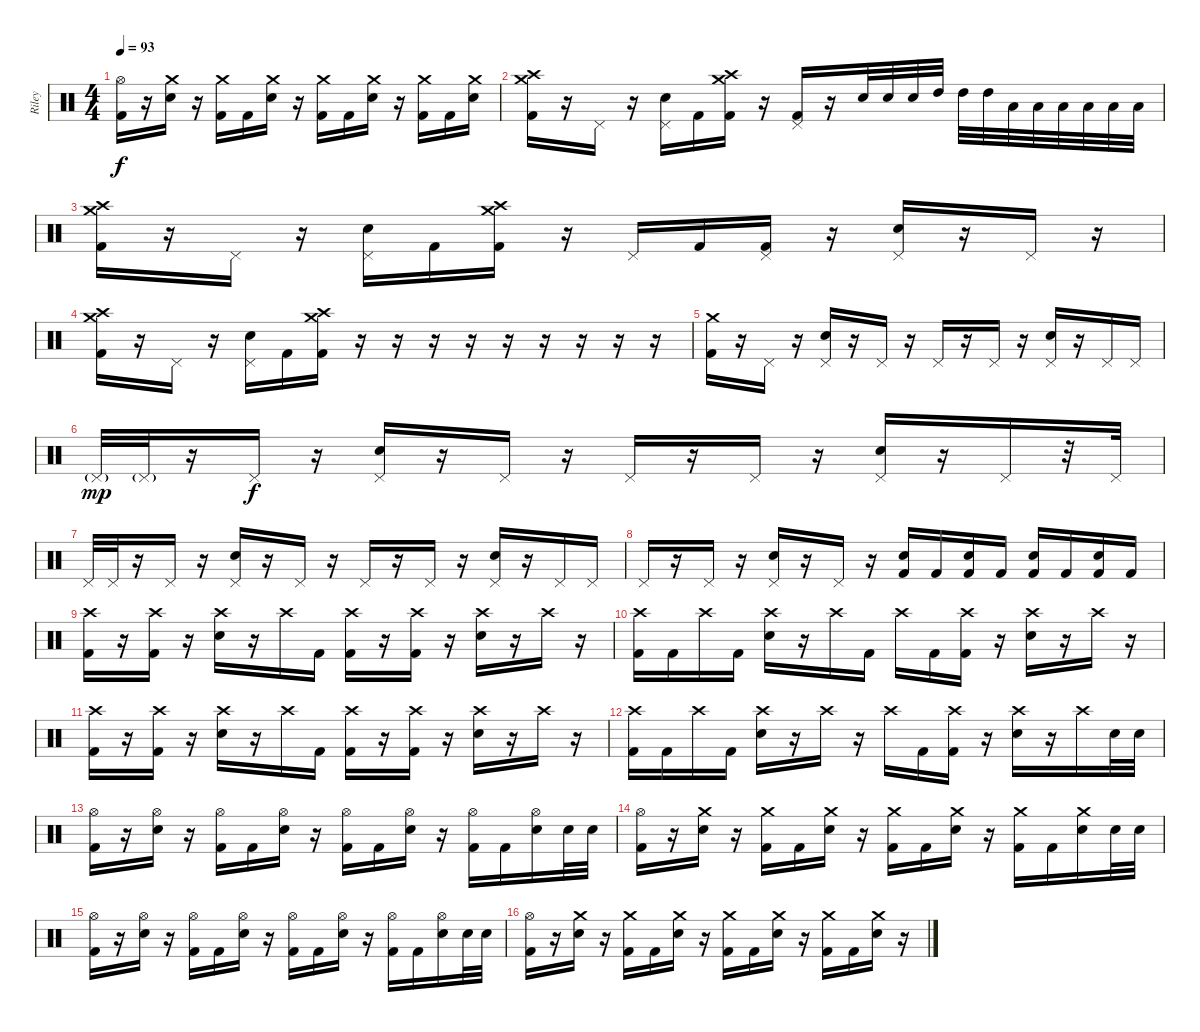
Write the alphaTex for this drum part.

\track ("Riley" "Riley") {instrument percussion}
\staff {score}
\articulation defaults
\ts (4 4)
\tempo 93
\clef neutral
\ks c
("Hi-Hat (open)" "Kick (hit) 2").16{dy f} r.16 ("Crash medium (hit)" "Electric Snare (hit)").16 r.16 ("Crash medium (hit)" "Kick (hit) 2").16 "Kick (hit) 2".16 ("Crash medium (hit)" "Electric Snare (hit)").16 r.16 ("Crash medium (hit)" "Kick (hit) 2").16 "Kick (hit) 2".16 ("Crash medium (hit)" "Electric Snare (hit)").16 r.16 ("Crash medium (hit)" "Kick (hit) 2").16 "Kick (hit) 2".16 ("Crash medium (hit)" "Electric Snare (hit)").16 |
("Crash high (hit)" "Crash medium (hit)" "Kick (hit) 2").16 r.16 "Pedal Hi-Hat (hit)".16 r.16 ("Pedal Hi-Hat (hit)" "Electric Snare (hit)").16 "Kick (hit) 2".16 ("Crash high (hit)" "Crash medium (hit)" "Kick (hit) 2").16 r.16 ("Pedal Hi-Hat (hit)" "Kick (hit) 2").16 r.16 "Electric Snare (hit)".32 "Electric Snare (hit)".32 "Electric Snare (hit)".32 "High Tom (hit)".32 "High Tom (hit)".32 "High Tom (hit)".32 "Low Tom (hit)".32 "Low Tom (hit)".32 "Low Tom (hit)".32 "Low Tom (hit)".32 "Low Tom (hit)".32 "Low Tom (hit)".32 |
("Crash high (hit)" "Crash medium (hit)" "Kick (hit) 2").16 r.16 "Pedal Hi-Hat (hit)".16 r.16 ("Pedal Hi-Hat (hit)" "Electric Snare (hit)").16 "Kick (hit) 2".16 ("Crash high (hit)" "Crash medium (hit)" "Kick (hit) 2").16 r.16 "Pedal Hi-Hat (hit)".16 "Kick (hit) 2".16 ("Pedal Hi-Hat (hit)" "Kick (hit) 2").16 r.16 ("Pedal Hi-Hat (hit)" "Electric Snare (hit)").16 r.16 "Pedal Hi-Hat (hit)".16 r.16 |
("Crash high (hit)" "Crash medium (hit)" "Kick (hit) 2").16 r.16 "Pedal Hi-Hat (hit)".16 r.16 ("Pedal Hi-Hat (hit)" "Electric Snare (hit)").16 "Kick (hit) 2".16 ("Crash high (hit)" "Crash medium (hit)" "Kick (hit) 2").16 r.16 r.16 r.16 r.16 r.16 r.16 r.16 r.16 r.16 |
("Crash medium (hit)" "Kick (hit) 2").16 r.16 "Pedal Hi-Hat (hit)".16 r.16 ("Pedal Hi-Hat (hit)" "Electric Snare (hit)").16 r.16 "Pedal Hi-Hat (hit)".16 r.16 "Pedal Hi-Hat (hit)".16 r.16 "Pedal Hi-Hat (hit)".16 r.16 ("Pedal Hi-Hat (hit)" "Electric Snare (hit)").16 r.16 "Pedal Hi-Hat (hit)".16 "Pedal Hi-Hat (hit)".16 |
"Pedal Hi-Hat (hit)"{g}.32{dy mp} "Pedal Hi-Hat (hit)"{g}.32 r.16 "Pedal Hi-Hat (hit)".16{dy f} r.16 ("Pedal Hi-Hat (hit)" "Electric Snare (hit)").16 r.16 "Pedal Hi-Hat (hit)".16 r.16 "Pedal Hi-Hat (hit)".16 r.16 "Pedal Hi-Hat (hit)".16 r.16 ("Pedal Hi-Hat (hit)" "Electric Snare (hit)").16 r.16 "Pedal Hi-Hat (hit)".16 r.32 "Pedal Hi-Hat (hit)".32 |
"Pedal Hi-Hat (hit)".32 "Pedal Hi-Hat (hit)".32 r.16 "Pedal Hi-Hat (hit)".16 r.16 ("Pedal Hi-Hat (hit)" "Electric Snare (hit)").16 r.16 "Pedal Hi-Hat (hit)".16 r.16 "Pedal Hi-Hat (hit)".16 r.16 "Pedal Hi-Hat (hit)".16 r.16 ("Pedal Hi-Hat (hit)" "Electric Snare (hit)").16 r.16 "Pedal Hi-Hat (hit)".16 "Pedal Hi-Hat (hit)".16 |
"Pedal Hi-Hat (hit)".16 r.16 "Pedal Hi-Hat (hit)".16 r.16 ("Pedal Hi-Hat (hit)" "Electric Snare (hit)").16 r.16 "Pedal Hi-Hat (hit)".16 r.16 ("Electric Snare (hit)" "Kick (hit) 2").16 "Kick (hit) 2".16 ("Electric Snare (hit)" "Kick (hit) 2").16 "Kick (hit) 2".16 ("Electric Snare (hit)" "Kick (hit) 2").16 "Kick (hit) 2".16 ("Electric Snare (hit)" "Kick (hit) 2").16 "Kick (hit) 2".16 |
("Crash high (hit)" "Kick (hit) 2").16 r.16 ("Crash high (hit)" "Kick (hit) 2").16 r.16 ("Crash high (hit)" "Electric Snare (hit)").16 r.16 "Crash high (hit)".16 "Kick (hit) 2".16 ("Crash high (hit)" "Kick (hit) 2").16 r.16 ("Crash high (hit)" "Kick (hit) 2").16 r.16 ("Crash high (hit)" "Electric Snare (hit)").16 r.16 "Crash high (hit)".16 r.16 |
("Crash high (hit)" "Kick (hit) 2").16 "Kick (hit) 2".16 "Crash high (hit)".16 "Kick (hit) 2".16 ("Crash high (hit)" "Electric Snare (hit)").16 r.16 "Crash high (hit)".16 "Kick (hit) 2".16 "Crash high (hit)".16 "Kick (hit) 2".16 ("Crash high (hit)" "Kick (hit) 2").16 r.16 ("Crash high (hit)" "Electric Snare (hit)").16 r.16 "Crash high (hit)".16 r.16 |
("Crash high (hit)" "Kick (hit) 2").16 r.16 ("Crash high (hit)" "Kick (hit) 2").16 r.16 ("Crash high (hit)" "Electric Snare (hit)").16 r.16 "Crash high (hit)".16 "Kick (hit) 2".16 ("Crash high (hit)" "Kick (hit) 2").16 r.16 ("Crash high (hit)" "Kick (hit) 2").16 r.16 ("Crash high (hit)" "Electric Snare (hit)").16 r.16 "Crash high (hit)".16 r.16 |
("Crash high (hit)" "Kick (hit) 2").16 "Kick (hit) 2".16 "Crash high (hit)".16 "Kick (hit) 2".16 ("Crash high (hit)" "Electric Snare (hit)").16 r.16 "Crash high (hit)".16 r.16 "Crash high (hit)".16 "Kick (hit) 2".16 ("Crash high (hit)" "Kick (hit) 2").16 r.16 ("Crash high (hit)" "Electric Snare (hit)").16 r.16 "Crash high (hit)".16 "Electric Snare (hit)".32 "Electric Snare (hit)".32 |
("Hi-Hat (open)" "Kick (hit) 2").16 r.16 ("Hi-Hat (open)" "Electric Snare (hit)").16 r.16 ("Hi-Hat (open)" "Kick (hit) 2").16 "Kick (hit) 2".16 ("Hi-Hat (open)" "Electric Snare (hit)").16 r.16 ("Hi-Hat (open)" "Kick (hit) 2").16 "Kick (hit) 2".16 ("Hi-Hat (open)" "Electric Snare (hit)").16 r.16 ("Hi-Hat (open)" "Kick (hit) 2").16 "Kick (hit) 2".16 ("Hi-Hat (open)" "Electric Snare (hit)").16 "Electric Snare (hit)".32 "Electric Snare (hit)".32 |
("Hi-Hat (open)" "Kick (hit) 2").16 r.16 ("Crash medium (hit)" "Electric Snare (hit)").16 r.16 ("Crash medium (hit)" "Kick (hit) 2").16 "Kick (hit) 2".16 ("Crash medium (hit)" "Electric Snare (hit)").16 r.16 ("Crash medium (hit)" "Kick (hit) 2").16 "Kick (hit) 2".16 ("Crash medium (hit)" "Electric Snare (hit)").16 r.16 ("Crash medium (hit)" "Kick (hit) 2").16 "Kick (hit) 2".16 ("Crash medium (hit)" "Electric Snare (hit)").16 "Electric Snare (hit)".32 "Electric Snare (hit)".32 |
("Hi-Hat (open)" "Kick (hit) 2").16 r.16 ("Hi-Hat (open)" "Electric Snare (hit)").16 r.16 ("Hi-Hat (open)" "Kick (hit) 2").16 "Kick (hit) 2".16 ("Hi-Hat (open)" "Electric Snare (hit)").16 r.16 ("Hi-Hat (open)" "Kick (hit) 2").16 "Kick (hit) 2".16 ("Hi-Hat (open)" "Electric Snare (hit)").16 r.16 ("Hi-Hat (open)" "Kick (hit) 2").16 "Kick (hit) 2".16 ("Hi-Hat (open)" "Electric Snare (hit)").16 "Electric Snare (hit)".32 "Electric Snare (hit)".32 |
("Hi-Hat (open)" "Kick (hit) 2").16 r.16 ("Crash medium (hit)" "Electric Snare (hit)").16 r.16 ("Crash medium (hit)" "Kick (hit) 2").16 "Kick (hit) 2".16 ("Crash medium (hit)" "Electric Snare (hit)").16 r.16 ("Crash medium (hit)" "Kick (hit) 2").16 "Kick (hit) 2".16 ("Crash medium (hit)" "Electric Snare (hit)").16 r.16 ("Crash medium (hit)" "Kick (hit) 2").16 "Kick (hit) 2".16 ("Crash medium (hit)" "Electric Snare (hit)").16 r.16
